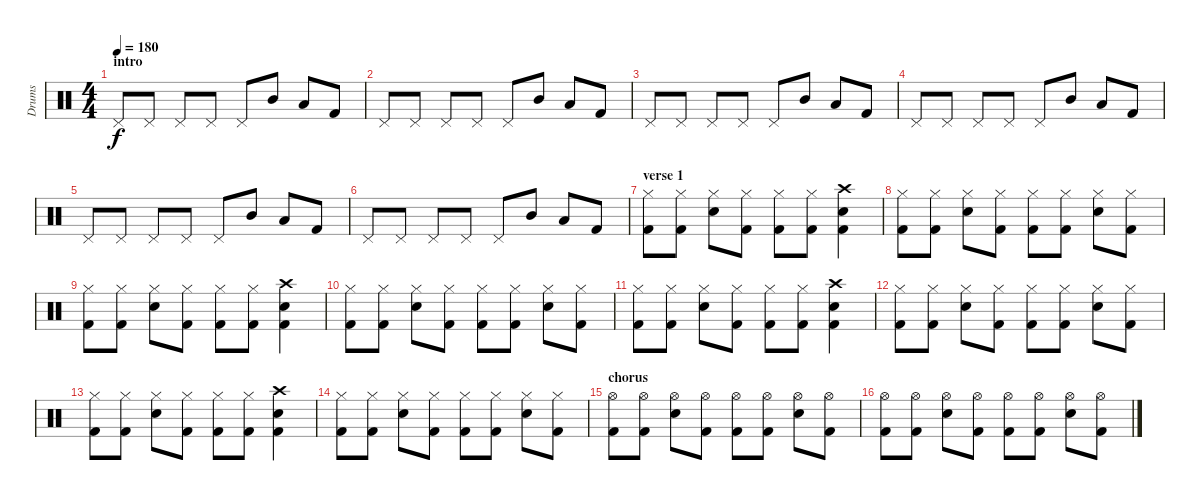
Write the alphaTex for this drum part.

\track ("Drums" "Drums") {instrument percussion}
\staff {score}
\articulation defaults
\ts (4 4)
\section ("" "intro")
\tempo 180
\clef neutral
\ks c "Pedal Hi-Hat (hit)".8{dy f} "Pedal Hi-Hat (hit)".8 "Pedal Hi-Hat (hit)".8 "Pedal Hi-Hat (hit)".8 "Pedal Hi-Hat (hit)".8 "Mid Tom (hit)".8 "Low Tom (hit)".8 "Kick (hit) 2".8
|
"Pedal Hi-Hat (hit)".8 "Pedal Hi-Hat (hit)".8 "Pedal Hi-Hat (hit)".8 "Pedal Hi-Hat (hit)".8 "Pedal Hi-Hat (hit)".8 "Mid Tom (hit)".8 "Low Tom (hit)".8 "Kick (hit) 2".8 |
"Pedal Hi-Hat (hit)".8 "Pedal Hi-Hat (hit)".8 "Pedal Hi-Hat (hit)".8 "Pedal Hi-Hat (hit)".8 "Pedal Hi-Hat (hit)".8 "Mid Tom (hit)".8 "Low Tom (hit)".8 "Kick (hit) 2".8 |
"Pedal Hi-Hat (hit)".8 "Pedal Hi-Hat (hit)".8 "Pedal Hi-Hat (hit)".8 "Pedal Hi-Hat (hit)".8 "Pedal Hi-Hat (hit)".8 "Mid Tom (hit)".8 "Low Tom (hit)".8 "Kick (hit) 2".8 |
"Pedal Hi-Hat (hit)".8 "Pedal Hi-Hat (hit)".8 "Pedal Hi-Hat (hit)".8 "Pedal Hi-Hat (hit)".8 "Pedal Hi-Hat (hit)".8 "Mid Tom (hit)".8 "Low Tom (hit)".8 "Kick (hit) 2".8 |
"Pedal Hi-Hat (hit)".8 "Pedal Hi-Hat (hit)".8 "Pedal Hi-Hat (hit)".8 "Pedal Hi-Hat (hit)".8 "Pedal Hi-Hat (hit)".8 "Mid Tom (hit)".8 "Low Tom (hit)".8 "Kick (hit) 2".8 |
\section ("" "verse 1")
("Hi-Hat (closed)" "Kick (hit) 2").8 ("Hi-Hat (closed)" "Kick (hit) 2").8 ("Hi-Hat (closed)" "Electric Snare (hit)").8 ("Hi-Hat (closed)" "Kick (hit) 2").8 ("Hi-Hat (closed)" "Kick (hit) 2").8 ("Hi-Hat (closed)" "Kick (hit) 2").8 ("Crash high (hit)" "Electric Snare (hit)" "Kick (hit) 2").4 |
("Hi-Hat (closed)" "Kick (hit) 2").8 ("Hi-Hat (closed)" "Kick (hit) 2").8 ("Hi-Hat (closed)" "Electric Snare (hit)").8 ("Hi-Hat (closed)" "Kick (hit) 2").8 ("Hi-Hat (closed)" "Kick (hit) 2").8 ("Hi-Hat (closed)" "Kick (hit) 2").8 ("Hi-Hat (closed)" "Electric Snare (hit)").8 ("Hi-Hat (closed)" "Kick (hit) 2").8 |
("Hi-Hat (closed)" "Kick (hit) 2").8 ("Hi-Hat (closed)" "Kick (hit) 2").8 ("Hi-Hat (closed)" "Electric Snare (hit)").8 ("Hi-Hat (closed)" "Kick (hit) 2").8 ("Hi-Hat (closed)" "Kick (hit) 2").8 ("Hi-Hat (closed)" "Kick (hit) 2").8 ("Crash high (hit)" "Electric Snare (hit)" "Kick (hit) 2").4 |
("Hi-Hat (closed)" "Kick (hit) 2").8 ("Hi-Hat (closed)" "Kick (hit) 2").8 ("Hi-Hat (closed)" "Electric Snare (hit)").8 ("Hi-Hat (closed)" "Kick (hit) 2").8 ("Hi-Hat (closed)" "Kick (hit) 2").8 ("Hi-Hat (closed)" "Kick (hit) 2").8 ("Hi-Hat (closed)" "Electric Snare (hit)").8 ("Hi-Hat (closed)" "Kick (hit) 2").8 |
("Hi-Hat (closed)" "Kick (hit) 2").8 ("Hi-Hat (closed)" "Kick (hit) 2").8 ("Hi-Hat (closed)" "Electric Snare (hit)").8 ("Hi-Hat (closed)" "Kick (hit) 2").8 ("Hi-Hat (closed)" "Kick (hit) 2").8 ("Hi-Hat (closed)" "Kick (hit) 2").8 ("Crash high (hit)" "Electric Snare (hit)" "Kick (hit) 2").4 |
("Hi-Hat (closed)" "Kick (hit) 2").8 ("Hi-Hat (closed)" "Kick (hit) 2").8 ("Hi-Hat (closed)" "Electric Snare (hit)").8 ("Hi-Hat (closed)" "Kick (hit) 2").8 ("Hi-Hat (closed)" "Kick (hit) 2").8 ("Hi-Hat (closed)" "Kick (hit) 2").8 ("Hi-Hat (closed)" "Electric Snare (hit)").8 ("Hi-Hat (closed)" "Kick (hit) 2").8 |
("Hi-Hat (closed)" "Kick (hit) 2").8 ("Hi-Hat (closed)" "Kick (hit) 2").8 ("Hi-Hat (closed)" "Electric Snare (hit)").8 ("Hi-Hat (closed)" "Kick (hit) 2").8 ("Hi-Hat (closed)" "Kick (hit) 2").8 ("Hi-Hat (closed)" "Kick (hit) 2").8 ("Crash high (hit)" "Electric Snare (hit)" "Kick (hit) 2").4 |
("Hi-Hat (closed)" "Kick (hit) 2").8 ("Hi-Hat (closed)" "Kick (hit) 2").8 ("Hi-Hat (closed)" "Electric Snare (hit)").8 ("Hi-Hat (closed)" "Kick (hit) 2").8 ("Hi-Hat (closed)" "Kick (hit) 2").8 ("Hi-Hat (closed)" "Kick (hit) 2").8 ("Hi-Hat (closed)" "Electric Snare (hit)").8 ("Hi-Hat (closed)" "Kick (hit) 2").8 |
\section ("" "chorus")
("Hi-Hat (open)" "Kick (hit) 2").8 ("Hi-Hat (open)" "Kick (hit) 2").8 ("Hi-Hat (open)" "Electric Snare (hit)").8 ("Hi-Hat (open)" "Kick (hit) 2").8 ("Hi-Hat (open)" "Kick (hit) 2").8 ("Hi-Hat (open)" "Kick (hit) 2").8 ("Hi-Hat (open)" "Electric Snare (hit)").8 ("Hi-Hat (open)" "Kick (hit) 2").8 |
("Hi-Hat (open)" "Kick (hit) 2").8 ("Hi-Hat (open)" "Kick (hit) 2").8 ("Hi-Hat (open)" "Electric Snare (hit)").8 ("Hi-Hat (open)" "Kick (hit) 2").8 ("Hi-Hat (open)" "Kick (hit) 2").8 ("Hi-Hat (open)" "Kick (hit) 2").8 ("Hi-Hat (open)" "Electric Snare (hit)").8 ("Hi-Hat (open)" "Kick (hit) 2").8
